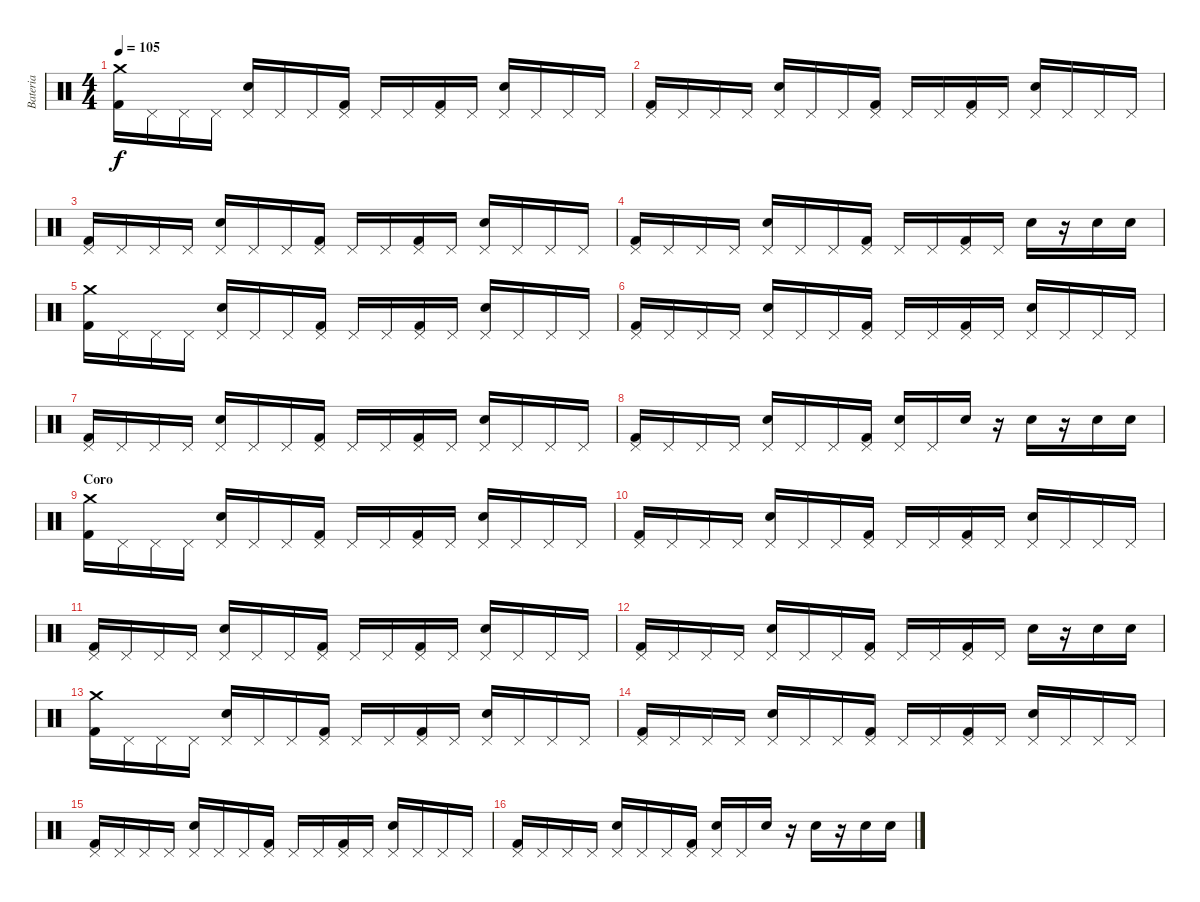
\track ("Bateria" "Bateria") {instrument percussion}
\staff {score}
\articulation defaults
\ts (4 4)
\tempo 105
\clef neutral
\ks c
("Crash medium (hit)" "Kick (hit) 2").16{dy f} "Pedal Hi-Hat (hit)".16 "Pedal Hi-Hat (hit)".16 "Pedal Hi-Hat (hit)".16 ("Pedal Hi-Hat (hit)" "Electric Snare (hit)").16 "Pedal Hi-Hat (hit)".16 "Pedal Hi-Hat (hit)".16 ("Pedal Hi-Hat (hit)" "Kick (hit) 2").16 "Pedal Hi-Hat (hit)".16 "Pedal Hi-Hat (hit)".16 ("Pedal Hi-Hat (hit)" "Kick (hit) 2").16 "Pedal Hi-Hat (hit)".16 ("Pedal Hi-Hat (hit)" "Electric Snare (hit)").16 "Pedal Hi-Hat (hit)".16 "Pedal Hi-Hat (hit)".16 "Pedal Hi-Hat (hit)".16 |
("Pedal Hi-Hat (hit)" "Kick (hit) 2").16 "Pedal Hi-Hat (hit)".16 "Pedal Hi-Hat (hit)".16 "Pedal Hi-Hat (hit)".16 ("Pedal Hi-Hat (hit)" "Electric Snare (hit)").16 "Pedal Hi-Hat (hit)".16 "Pedal Hi-Hat (hit)".16 ("Pedal Hi-Hat (hit)" "Kick (hit) 2").16 "Pedal Hi-Hat (hit)".16 "Pedal Hi-Hat (hit)".16 ("Pedal Hi-Hat (hit)" "Kick (hit) 2").16 "Pedal Hi-Hat (hit)".16 ("Pedal Hi-Hat (hit)" "Electric Snare (hit)").16 "Pedal Hi-Hat (hit)".16 "Pedal Hi-Hat (hit)".16 "Pedal Hi-Hat (hit)".16 |
("Pedal Hi-Hat (hit)" "Kick (hit) 2").16 "Pedal Hi-Hat (hit)".16 "Pedal Hi-Hat (hit)".16 "Pedal Hi-Hat (hit)".16 ("Pedal Hi-Hat (hit)" "Electric Snare (hit)").16 "Pedal Hi-Hat (hit)".16 "Pedal Hi-Hat (hit)".16 ("Pedal Hi-Hat (hit)" "Kick (hit) 2").16 "Pedal Hi-Hat (hit)".16 "Pedal Hi-Hat (hit)".16 ("Pedal Hi-Hat (hit)" "Kick (hit) 2").16 "Pedal Hi-Hat (hit)".16 ("Pedal Hi-Hat (hit)" "Electric Snare (hit)").16 "Pedal Hi-Hat (hit)".16 "Pedal Hi-Hat (hit)".16 "Pedal Hi-Hat (hit)".16 |
("Pedal Hi-Hat (hit)" "Kick (hit) 2").16 "Pedal Hi-Hat (hit)".16 "Pedal Hi-Hat (hit)".16 "Pedal Hi-Hat (hit)".16 ("Pedal Hi-Hat (hit)" "Electric Snare (hit)").16 "Pedal Hi-Hat (hit)".16 "Pedal Hi-Hat (hit)".16 ("Pedal Hi-Hat (hit)" "Kick (hit) 2").16 "Pedal Hi-Hat (hit)".16 "Pedal Hi-Hat (hit)".16 ("Pedal Hi-Hat (hit)" "Kick (hit) 2").16 "Pedal Hi-Hat (hit)".16 "Electric Snare (hit)".16 r.16 "Electric Snare (hit)".16 "Electric Snare (hit)".16 |
("Crash medium (hit)" "Kick (hit) 2").16 "Pedal Hi-Hat (hit)".16 "Pedal Hi-Hat (hit)".16 "Pedal Hi-Hat (hit)".16 ("Pedal Hi-Hat (hit)" "Electric Snare (hit)").16 "Pedal Hi-Hat (hit)".16 "Pedal Hi-Hat (hit)".16 ("Pedal Hi-Hat (hit)" "Kick (hit) 2").16 "Pedal Hi-Hat (hit)".16 "Pedal Hi-Hat (hit)".16 ("Pedal Hi-Hat (hit)" "Kick (hit) 2").16 "Pedal Hi-Hat (hit)".16 ("Pedal Hi-Hat (hit)" "Electric Snare (hit)").16 "Pedal Hi-Hat (hit)".16 "Pedal Hi-Hat (hit)".16 "Pedal Hi-Hat (hit)".16 |
("Pedal Hi-Hat (hit)" "Kick (hit) 2").16 "Pedal Hi-Hat (hit)".16 "Pedal Hi-Hat (hit)".16 "Pedal Hi-Hat (hit)".16 ("Pedal Hi-Hat (hit)" "Electric Snare (hit)").16 "Pedal Hi-Hat (hit)".16 "Pedal Hi-Hat (hit)".16 ("Pedal Hi-Hat (hit)" "Kick (hit) 2").16 "Pedal Hi-Hat (hit)".16 "Pedal Hi-Hat (hit)".16 ("Pedal Hi-Hat (hit)" "Kick (hit) 2").16 "Pedal Hi-Hat (hit)".16 ("Pedal Hi-Hat (hit)" "Electric Snare (hit)").16 "Pedal Hi-Hat (hit)".16 "Pedal Hi-Hat (hit)".16 "Pedal Hi-Hat (hit)".16 |
("Pedal Hi-Hat (hit)" "Kick (hit) 2").16 "Pedal Hi-Hat (hit)".16 "Pedal Hi-Hat (hit)".16 "Pedal Hi-Hat (hit)".16 ("Pedal Hi-Hat (hit)" "Electric Snare (hit)").16 "Pedal Hi-Hat (hit)".16 "Pedal Hi-Hat (hit)".16 ("Pedal Hi-Hat (hit)" "Kick (hit) 2").16 "Pedal Hi-Hat (hit)".16 "Pedal Hi-Hat (hit)".16 ("Pedal Hi-Hat (hit)" "Kick (hit) 2").16 "Pedal Hi-Hat (hit)".16 ("Pedal Hi-Hat (hit)" "Electric Snare (hit)").16 "Pedal Hi-Hat (hit)".16 "Pedal Hi-Hat (hit)".16 "Pedal Hi-Hat (hit)".16 |
("Pedal Hi-Hat (hit)" "Kick (hit) 2").16 "Pedal Hi-Hat (hit)".16 "Pedal Hi-Hat (hit)".16 "Pedal Hi-Hat (hit)".16 ("Pedal Hi-Hat (hit)" "Electric Snare (hit)").16 "Pedal Hi-Hat (hit)".16 "Pedal Hi-Hat (hit)".16 ("Pedal Hi-Hat (hit)" "Kick (hit) 2").16 ("Pedal Hi-Hat (hit)" "Electric Snare (hit)").16 "Pedal Hi-Hat (hit)".16 "Electric Snare (hit)".16 r.16 "Electric Snare (hit)".16 r.16 "Electric Snare (hit)".16 "Electric Snare (hit)".16 |
\section ("" "Coro")
("Crash medium (hit)" "Kick (hit) 2").16 "Pedal Hi-Hat (hit)".16 "Pedal Hi-Hat (hit)".16 "Pedal Hi-Hat (hit)".16 ("Pedal Hi-Hat (hit)" "Electric Snare (hit)").16 "Pedal Hi-Hat (hit)".16 "Pedal Hi-Hat (hit)".16 ("Pedal Hi-Hat (hit)" "Kick (hit) 2").16 "Pedal Hi-Hat (hit)".16 "Pedal Hi-Hat (hit)".16 ("Pedal Hi-Hat (hit)" "Kick (hit) 2").16 "Pedal Hi-Hat (hit)".16 ("Pedal Hi-Hat (hit)" "Electric Snare (hit)").16 "Pedal Hi-Hat (hit)".16 "Pedal Hi-Hat (hit)".16 "Pedal Hi-Hat (hit)".16 |
("Pedal Hi-Hat (hit)" "Kick (hit) 2").16 "Pedal Hi-Hat (hit)".16 "Pedal Hi-Hat (hit)".16 "Pedal Hi-Hat (hit)".16 ("Pedal Hi-Hat (hit)" "Electric Snare (hit)").16 "Pedal Hi-Hat (hit)".16 "Pedal Hi-Hat (hit)".16 ("Pedal Hi-Hat (hit)" "Kick (hit) 2").16 "Pedal Hi-Hat (hit)".16 "Pedal Hi-Hat (hit)".16 ("Pedal Hi-Hat (hit)" "Kick (hit) 2").16 "Pedal Hi-Hat (hit)".16 ("Pedal Hi-Hat (hit)" "Electric Snare (hit)").16 "Pedal Hi-Hat (hit)".16 "Pedal Hi-Hat (hit)".16 "Pedal Hi-Hat (hit)".16 |
("Pedal Hi-Hat (hit)" "Kick (hit) 2").16 "Pedal Hi-Hat (hit)".16 "Pedal Hi-Hat (hit)".16 "Pedal Hi-Hat (hit)".16 ("Pedal Hi-Hat (hit)" "Electric Snare (hit)").16 "Pedal Hi-Hat (hit)".16 "Pedal Hi-Hat (hit)".16 ("Pedal Hi-Hat (hit)" "Kick (hit) 2").16 "Pedal Hi-Hat (hit)".16 "Pedal Hi-Hat (hit)".16 ("Pedal Hi-Hat (hit)" "Kick (hit) 2").16 "Pedal Hi-Hat (hit)".16 ("Pedal Hi-Hat (hit)" "Electric Snare (hit)").16 "Pedal Hi-Hat (hit)".16 "Pedal Hi-Hat (hit)".16 "Pedal Hi-Hat (hit)".16 |
("Pedal Hi-Hat (hit)" "Kick (hit) 2").16 "Pedal Hi-Hat (hit)".16 "Pedal Hi-Hat (hit)".16 "Pedal Hi-Hat (hit)".16 ("Pedal Hi-Hat (hit)" "Electric Snare (hit)").16 "Pedal Hi-Hat (hit)".16 "Pedal Hi-Hat (hit)".16 ("Pedal Hi-Hat (hit)" "Kick (hit) 2").16 "Pedal Hi-Hat (hit)".16 "Pedal Hi-Hat (hit)".16 ("Pedal Hi-Hat (hit)" "Kick (hit) 2").16 "Pedal Hi-Hat (hit)".16 "Electric Snare (hit)".16 r.16 "Electric Snare (hit)".16 "Electric Snare (hit)".16 |
("Crash medium (hit)" "Kick (hit) 2").16 "Pedal Hi-Hat (hit)".16 "Pedal Hi-Hat (hit)".16 "Pedal Hi-Hat (hit)".16 ("Pedal Hi-Hat (hit)" "Electric Snare (hit)").16 "Pedal Hi-Hat (hit)".16 "Pedal Hi-Hat (hit)".16 ("Pedal Hi-Hat (hit)" "Kick (hit) 2").16 "Pedal Hi-Hat (hit)".16 "Pedal Hi-Hat (hit)".16 ("Pedal Hi-Hat (hit)" "Kick (hit) 2").16 "Pedal Hi-Hat (hit)".16 ("Pedal Hi-Hat (hit)" "Electric Snare (hit)").16 "Pedal Hi-Hat (hit)".16 "Pedal Hi-Hat (hit)".16 "Pedal Hi-Hat (hit)".16 |
("Pedal Hi-Hat (hit)" "Kick (hit) 2").16 "Pedal Hi-Hat (hit)".16 "Pedal Hi-Hat (hit)".16 "Pedal Hi-Hat (hit)".16 ("Pedal Hi-Hat (hit)" "Electric Snare (hit)").16 "Pedal Hi-Hat (hit)".16 "Pedal Hi-Hat (hit)".16 ("Pedal Hi-Hat (hit)" "Kick (hit) 2").16 "Pedal Hi-Hat (hit)".16 "Pedal Hi-Hat (hit)".16 ("Pedal Hi-Hat (hit)" "Kick (hit) 2").16 "Pedal Hi-Hat (hit)".16 ("Pedal Hi-Hat (hit)" "Electric Snare (hit)").16 "Pedal Hi-Hat (hit)".16 "Pedal Hi-Hat (hit)".16 "Pedal Hi-Hat (hit)".16 |
("Pedal Hi-Hat (hit)" "Kick (hit) 2").16 "Pedal Hi-Hat (hit)".16 "Pedal Hi-Hat (hit)".16 "Pedal Hi-Hat (hit)".16 ("Pedal Hi-Hat (hit)" "Electric Snare (hit)").16 "Pedal Hi-Hat (hit)".16 "Pedal Hi-Hat (hit)".16 ("Pedal Hi-Hat (hit)" "Kick (hit) 2").16 "Pedal Hi-Hat (hit)".16 "Pedal Hi-Hat (hit)".16 ("Pedal Hi-Hat (hit)" "Kick (hit) 2").16 "Pedal Hi-Hat (hit)".16 ("Pedal Hi-Hat (hit)" "Electric Snare (hit)").16 "Pedal Hi-Hat (hit)".16 "Pedal Hi-Hat (hit)".16 "Pedal Hi-Hat (hit)".16 |
("Pedal Hi-Hat (hit)" "Kick (hit) 2").16 "Pedal Hi-Hat (hit)".16 "Pedal Hi-Hat (hit)".16 "Pedal Hi-Hat (hit)".16 ("Pedal Hi-Hat (hit)" "Electric Snare (hit)").16 "Pedal Hi-Hat (hit)".16 "Pedal Hi-Hat (hit)".16 ("Pedal Hi-Hat (hit)" "Kick (hit) 2").16 ("Pedal Hi-Hat (hit)" "Electric Snare (hit)").16 "Pedal Hi-Hat (hit)".16 "Electric Snare (hit)".16 r.16 "Electric Snare (hit)".16 r.16 "Electric Snare (hit)".16 "Electric Snare (hit)".16
